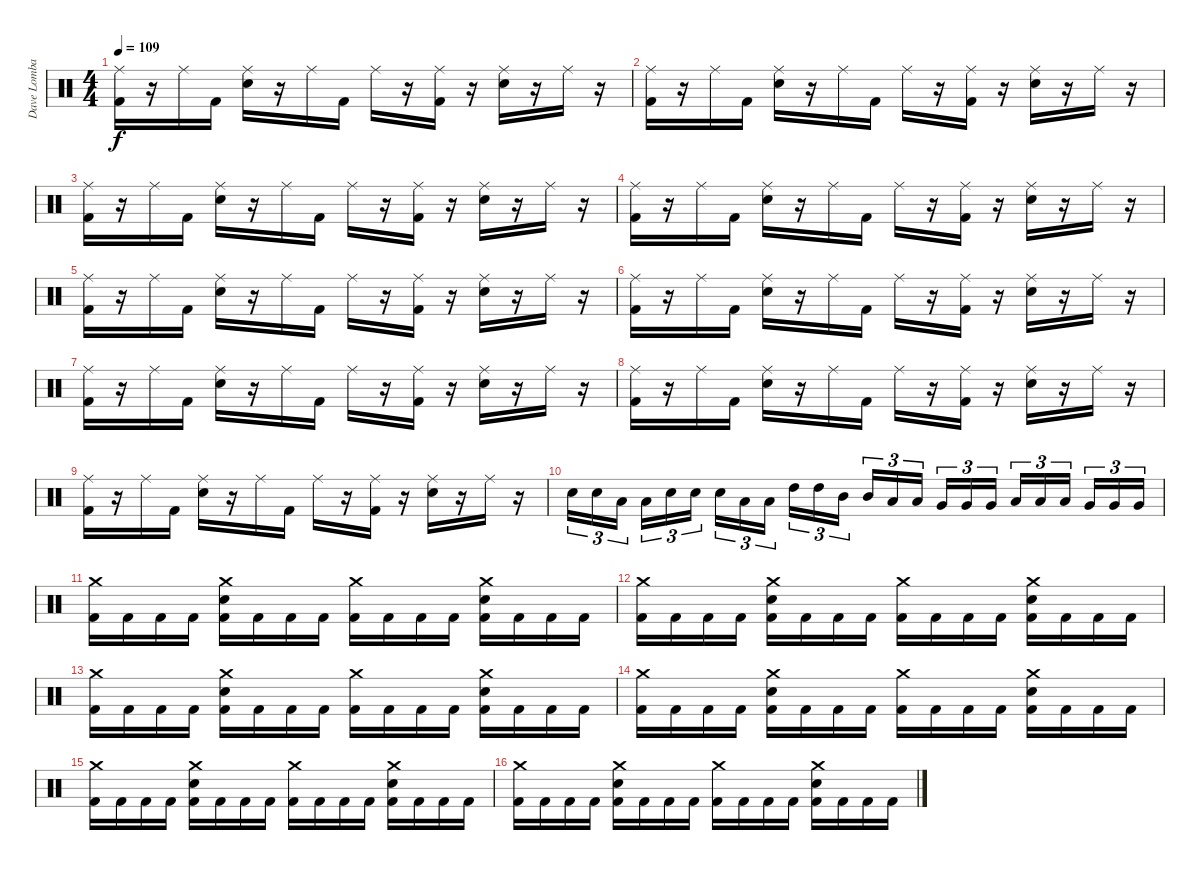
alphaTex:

\track ("Dave Lombardo" "Dave Lomba") {instrument percussion}
\staff {score}
\articulation defaults
\ts (4 4)
\tempo 109
\clef neutral
\ks c
("Ride (middle)" "Kick (hit) 2").16{dy f} r.16 "Ride (middle)".16 "Kick (hit) 2".16 ("Ride (middle)" "Electric Snare (hit)").16 r.16 "Ride (middle)".16 "Kick (hit) 2".16 "Ride (middle)".16 r.16 ("Ride (middle)" "Kick (hit) 2").16 r.16 ("Ride (middle)" "Electric Snare (hit)").16 r.16 "Ride (middle)".16 r.16 |
("Ride (middle)" "Kick (hit) 2").16 r.16 "Ride (middle)".16 "Kick (hit) 2".16 ("Ride (middle)" "Electric Snare (hit)").16 r.16 "Ride (middle)".16 "Kick (hit) 2".16 "Ride (middle)".16 r.16 ("Ride (middle)" "Kick (hit) 2").16 r.16 ("Ride (middle)" "Electric Snare (hit)").16 r.16 "Ride (middle)".16 r.16 |
("Ride (middle)" "Kick (hit) 2").16 r.16 "Ride (middle)".16 "Kick (hit) 2".16 ("Ride (middle)" "Electric Snare (hit)").16 r.16 "Ride (middle)".16 "Kick (hit) 2".16 "Ride (middle)".16 r.16 ("Ride (middle)" "Kick (hit) 2").16 r.16 ("Ride (middle)" "Electric Snare (hit)").16 r.16 "Ride (middle)".16 r.16 |
("Ride (middle)" "Kick (hit) 2").16 r.16 "Ride (middle)".16 "Kick (hit) 2".16 ("Ride (middle)" "Electric Snare (hit)").16 r.16 "Ride (middle)".16 "Kick (hit) 2".16 "Ride (middle)".16 r.16 ("Ride (middle)" "Kick (hit) 2").16 r.16 ("Ride (middle)" "Electric Snare (hit)").16 r.16 "Ride (middle)".16 r.16 |
("Ride (middle)" "Kick (hit) 2").16 r.16 "Ride (middle)".16 "Kick (hit) 2".16 ("Ride (middle)" "Electric Snare (hit)").16 r.16 "Ride (middle)".16 "Kick (hit) 2".16 "Ride (middle)".16 r.16 ("Ride (middle)" "Kick (hit) 2").16 r.16 ("Ride (middle)" "Electric Snare (hit)").16 r.16 "Ride (middle)".16 r.16 |
("Ride (middle)" "Kick (hit) 2").16 r.16 "Ride (middle)".16 "Kick (hit) 2".16 ("Ride (middle)" "Electric Snare (hit)").16 r.16 "Ride (middle)".16 "Kick (hit) 2".16 "Ride (middle)".16 r.16 ("Ride (middle)" "Kick (hit) 2").16 r.16 ("Ride (middle)" "Electric Snare (hit)").16 r.16 "Ride (middle)".16 r.16 |
("Ride (middle)" "Kick (hit) 2").16 r.16 "Ride (middle)".16 "Kick (hit) 2".16 ("Ride (middle)" "Electric Snare (hit)").16 r.16 "Ride (middle)".16 "Kick (hit) 2".16 "Ride (middle)".16 r.16 ("Ride (middle)" "Kick (hit) 2").16 r.16 ("Ride (middle)" "Electric Snare (hit)").16 r.16 "Ride (middle)".16 r.16 |
("Ride (middle)" "Kick (hit) 2").16 r.16 "Ride (middle)".16 "Kick (hit) 2".16 ("Ride (middle)" "Electric Snare (hit)").16 r.16 "Ride (middle)".16 "Kick (hit) 2".16 "Ride (middle)".16 r.16 ("Ride (middle)" "Kick (hit) 2").16 r.16 ("Ride (middle)" "Electric Snare (hit)").16 r.16 "Ride (middle)".16 r.16 |
("Ride (middle)" "Kick (hit) 2").16 r.16 "Ride (middle)".16 "Kick (hit) 2".16 ("Ride (middle)" "Electric Snare (hit)").16 r.16 "Ride (middle)".16 "Kick (hit) 2".16 "Ride (middle)".16 r.16 ("Ride (middle)" "Kick (hit) 2").16 r.16 ("Ride (middle)" "Electric Snare (hit)").16 r.16 "Ride (middle)".16 r.16 |
"Electric Snare (hit)".16{tu (3 2)} "Electric Snare (hit)".16{tu (3 2)} "Low Tom (hit)".16{tu (3 2)} "Low Tom (hit)".16{tu (3 2)} "Electric Snare (hit)".16{tu (3 2)} "Electric Snare (hit)".16{tu (3 2)} "Electric Snare (hit)".16{tu (3 2)} "Low Tom (hit)".16{tu (3 2)} "Low Tom (hit)".16{tu (3 2)} "High Tom (hit)".16{tu (3 2)} "High Tom (hit)".16{tu (3 2)} "Mid Tom (hit)".16{tu (3 2)} "Mid Tom (hit)".16{tu (3 2)} "Low Tom (hit)".16{tu (3 2)} "Low Tom (hit)".16{tu (3 2)} "Very Low Tom (hit)".16{tu (3 2)} "Very Low Tom (hit)".16{tu (3 2)} "Very Low Tom (hit)".16{tu (3 2)} "Low Floor Tom (hit)".16{tu (3 2)} "Low Floor Tom (hit)".16{tu (3 2)} "Low Floor Tom (hit)".16{tu (3 2)} "Very Low Tom (hit)".16{tu (3 2)} "Very Low Tom (hit)".16{tu (3 2)} "Very Low Tom (hit)".16{tu (3 2)} |
("Crash medium (hit)" "Kick (hit) 2").16 "Kick (hit) 2".16 "Kick (hit) 2".16 "Kick (hit) 2".16 ("Crash medium (hit)" "Electric Snare (hit)" "Kick (hit) 2").16 "Kick (hit) 2".16 "Kick (hit) 2".16 "Kick (hit) 2".16 ("Crash medium (hit)" "Kick (hit) 2").16 "Kick (hit) 2".16 "Kick (hit) 2".16 "Kick (hit) 2".16 ("Crash medium (hit)" "Electric Snare (hit)" "Kick (hit) 2").16 "Kick (hit) 2".16 "Kick (hit) 2".16 "Kick (hit) 2".16 |
("Crash medium (hit)" "Kick (hit) 2").16 "Kick (hit) 2".16 "Kick (hit) 2".16 "Kick (hit) 2".16 ("Crash medium (hit)" "Electric Snare (hit)" "Kick (hit) 2").16 "Kick (hit) 2".16 "Kick (hit) 2".16 "Kick (hit) 2".16 ("Crash medium (hit)" "Kick (hit) 2").16 "Kick (hit) 2".16 "Kick (hit) 2".16 "Kick (hit) 2".16 ("Crash medium (hit)" "Electric Snare (hit)" "Kick (hit) 2").16 "Kick (hit) 2".16 "Kick (hit) 2".16 "Kick (hit) 2".16 |
("Crash medium (hit)" "Kick (hit) 2").16 "Kick (hit) 2".16 "Kick (hit) 2".16 "Kick (hit) 2".16 ("Crash medium (hit)" "Electric Snare (hit)" "Kick (hit) 2").16 "Kick (hit) 2".16 "Kick (hit) 2".16 "Kick (hit) 2".16 ("Crash medium (hit)" "Kick (hit) 2").16 "Kick (hit) 2".16 "Kick (hit) 2".16 "Kick (hit) 2".16 ("Crash medium (hit)" "Electric Snare (hit)" "Kick (hit) 2").16 "Kick (hit) 2".16 "Kick (hit) 2".16 "Kick (hit) 2".16 |
("Crash medium (hit)" "Kick (hit) 2").16 "Kick (hit) 2".16 "Kick (hit) 2".16 "Kick (hit) 2".16 ("Crash medium (hit)" "Electric Snare (hit)" "Kick (hit) 2").16 "Kick (hit) 2".16 "Kick (hit) 2".16 "Kick (hit) 2".16 ("Crash medium (hit)" "Kick (hit) 2").16 "Kick (hit) 2".16 "Kick (hit) 2".16 "Kick (hit) 2".16 ("Crash medium (hit)" "Electric Snare (hit)" "Kick (hit) 2").16 "Kick (hit) 2".16 "Kick (hit) 2".16 "Kick (hit) 2".16 |
("Crash medium (hit)" "Kick (hit) 2").16 "Kick (hit) 2".16 "Kick (hit) 2".16 "Kick (hit) 2".16 ("Crash medium (hit)" "Electric Snare (hit)" "Kick (hit) 2").16 "Kick (hit) 2".16 "Kick (hit) 2".16 "Kick (hit) 2".16 ("Crash medium (hit)" "Kick (hit) 2").16 "Kick (hit) 2".16 "Kick (hit) 2".16 "Kick (hit) 2".16 ("Crash medium (hit)" "Electric Snare (hit)" "Kick (hit) 2").16 "Kick (hit) 2".16 "Kick (hit) 2".16 "Kick (hit) 2".16 |
("Crash medium (hit)" "Kick (hit) 2").16 "Kick (hit) 2".16 "Kick (hit) 2".16 "Kick (hit) 2".16 ("Crash medium (hit)" "Electric Snare (hit)" "Kick (hit) 2").16 "Kick (hit) 2".16 "Kick (hit) 2".16 "Kick (hit) 2".16 ("Crash medium (hit)" "Kick (hit) 2").16 "Kick (hit) 2".16 "Kick (hit) 2".16 "Kick (hit) 2".16 ("Crash medium (hit)" "Electric Snare (hit)" "Kick (hit) 2").16 "Kick (hit) 2".16 "Kick (hit) 2".16 "Kick (hit) 2".16
